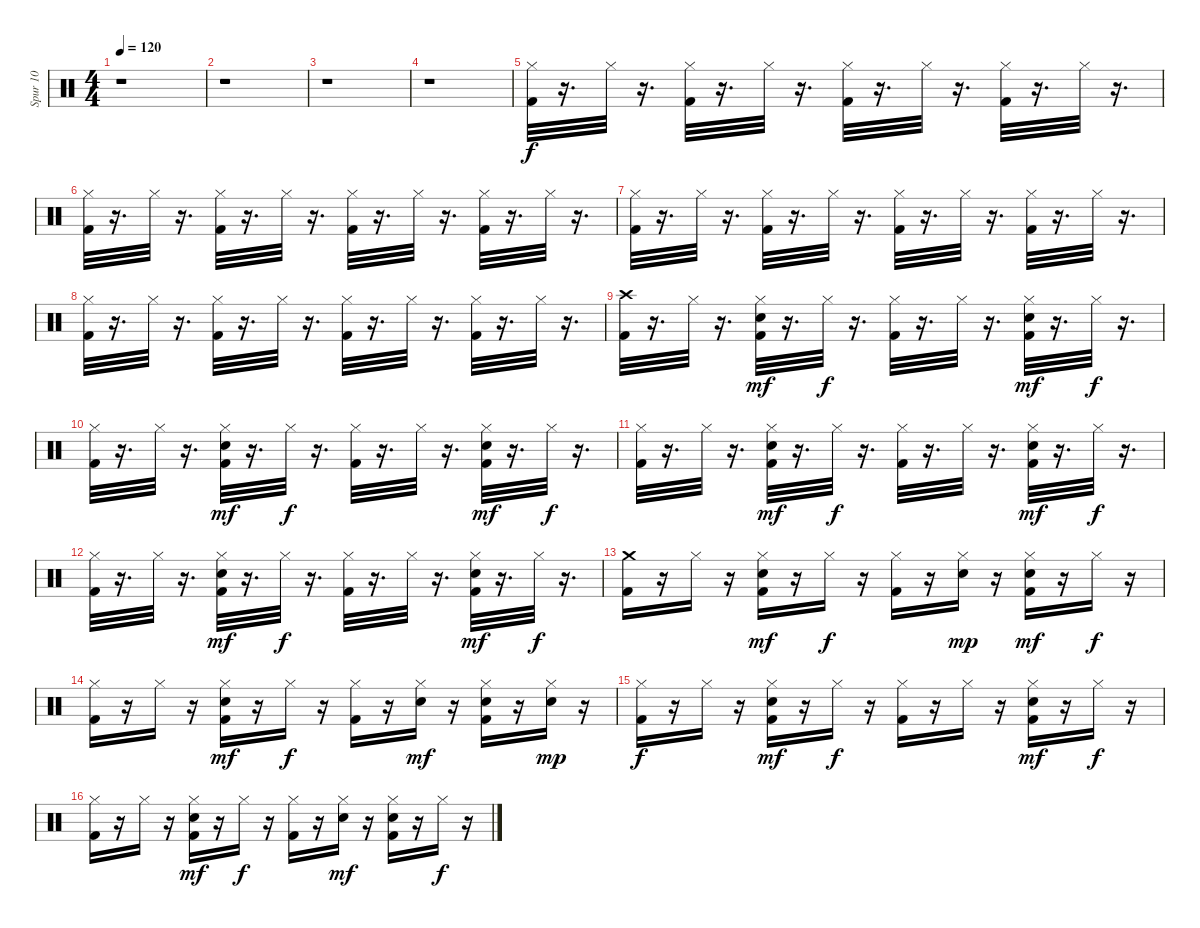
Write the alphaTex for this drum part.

\track ("Spur 10" "Spur 10") {instrument percussion}
\staff {score}
\articulation defaults
\ts (4 4)
\tempo 120
\clef neutral
\ks c
r.1{dy f} |
r.1 |
r.1 |
r.1 |
("Kick (hit) 2" "Hi-Hat (closed)").32 r.16{d} "Hi-Hat (closed)".32 r.16{d} ("Hi-Hat (closed)" "Kick (hit) 2").32 r.16{d} "Hi-Hat (closed)".32 r.16{d} ("Hi-Hat (closed)" "Kick (hit) 2").32 r.16{d} "Hi-Hat (closed)".32 r.16{d} ("Hi-Hat (closed)" "Kick (hit) 2").32 r.16{d} "Hi-Hat (closed)".32 r.16{d} |
("Kick (hit) 2" "Hi-Hat (closed)").32 r.16{d} "Hi-Hat (closed)".32 r.16{d} ("Hi-Hat (closed)" "Kick (hit) 2").32 r.16{d} "Hi-Hat (closed)".32 r.16{d} ("Hi-Hat (closed)" "Kick (hit) 2").32 r.16{d} "Hi-Hat (closed)".32 r.16{d} ("Hi-Hat (closed)" "Kick (hit) 2").32 r.16{d} "Hi-Hat (closed)".32 r.16{d} |
("Kick (hit) 2" "Hi-Hat (closed)").32 r.16{d} "Hi-Hat (closed)".32 r.16{d} ("Hi-Hat (closed)" "Kick (hit) 2").32 r.16{d} "Hi-Hat (closed)".32 r.16{d} ("Hi-Hat (closed)" "Kick (hit) 2").32 r.16{d} "Hi-Hat (closed)".32 r.16{d} ("Hi-Hat (closed)" "Kick (hit) 2").32 r.16{d} "Hi-Hat (closed)".32 r.16{d} |
("Kick (hit) 2" "Hi-Hat (closed)").32 r.16{d} "Hi-Hat (closed)".32 r.16{d} ("Hi-Hat (closed)" "Kick (hit) 2").32 r.16{d} "Hi-Hat (closed)".32 r.16{d} ("Hi-Hat (closed)" "Kick (hit) 2").32 r.16{d} "Hi-Hat (closed)".32 r.16{d} ("Hi-Hat (closed)" "Kick (hit) 2").32 r.16{d} "Hi-Hat (closed)".32 r.16{d} |
("Crash high (hit)" "Kick (hit) 2").32 r.16{d} "Hi-Hat (closed)".32 r.16{d} ("Hi-Hat (closed)" "Kick (hit) 2" "Snare (hit) 2").32{dy mf} r.16{d} "Hi-Hat (closed)".32{dy f} r.16{d} ("Hi-Hat (closed)" "Kick (hit) 2").32 r.16{d} "Hi-Hat (closed)".32 r.16{d} ("Hi-Hat (closed)" "Kick (hit) 2" "Snare (hit) 2").32{dy mf} r.16{d} "Hi-Hat (closed)".32{dy f} r.16{d} |
("Hi-Hat (closed)" "Kick (hit) 2").32 r.16{d} "Hi-Hat (closed)".32 r.16{d} ("Hi-Hat (closed)" "Kick (hit) 2" "Snare (hit) 2").32{dy mf} r.16{d} "Hi-Hat (closed)".32{dy f} r.16{d} ("Hi-Hat (closed)" "Kick (hit) 2").32 r.16{d} "Hi-Hat (closed)".32 r.16{d} ("Hi-Hat (closed)" "Kick (hit) 2" "Snare (hit) 2").32{dy mf} r.16{d} "Hi-Hat (closed)".32{dy f} r.16{d} |
("Hi-Hat (closed)" "Kick (hit) 2").32 r.16{d} "Hi-Hat (closed)".32 r.16{d} ("Hi-Hat (closed)" "Kick (hit) 2" "Snare (hit) 2").32{dy mf} r.16{d} "Hi-Hat (closed)".32{dy f} r.16{d} ("Hi-Hat (closed)" "Kick (hit) 2").32 r.16{d} "Hi-Hat (closed)".32 r.16{d} ("Hi-Hat (closed)" "Kick (hit) 2" "Snare (hit) 2").32{dy mf} r.16{d} "Hi-Hat (closed)".32{dy f} r.16{d} |
("Hi-Hat (closed)" "Kick (hit) 2").32 r.16{d} "Hi-Hat (closed)".32 r.16{d} ("Hi-Hat (closed)" "Kick (hit) 2" "Snare (hit) 2").32{dy mf} r.16{d} "Hi-Hat (closed)".32{dy f} r.16{d} ("Hi-Hat (closed)" "Kick (hit) 2").32 r.16{d} "Hi-Hat (closed)".32 r.16{d} ("Hi-Hat (closed)" "Kick (hit) 2" "Snare (hit) 2").32{dy mf} r.16{d} "Hi-Hat (closed)".32{dy f} r.16{d} |
("Crash medium (hit)" "Kick (hit) 2").16 r.16 "Hi-Hat (closed)".16 r.16 ("Kick (hit) 2" "Hi-Hat (closed)" "Snare (hit) 2").16{dy mf} r.16 "Hi-Hat (closed)".16{dy f} r.16 ("Kick (hit) 2" "Hi-Hat (closed)").16 r.16 ("Hi-Hat (closed)" "Snare (hit) 2").16{dy mp} r.16 ("Kick (hit) 2" "Hi-Hat (closed)" "Snare (hit) 2").16{dy mf} r.16 "Hi-Hat (closed)".16{dy f} r.16 |
("Hi-Hat (closed)" "Kick (hit) 2").16 r.16 "Hi-Hat (closed)".16 r.16 ("Hi-Hat (closed)" "Kick (hit) 2" "Snare (hit) 2").16{dy mf} r.16 "Hi-Hat (closed)".16{dy f} r.16 ("Hi-Hat (closed)" "Kick (hit) 2").16 r.16 ("Hi-Hat (closed)" "Snare (hit) 2").16{dy mf} r.16 ("Hi-Hat (closed)" "Kick (hit) 2" "Snare (hit) 2").16 r.16 ("Hi-Hat (closed)" "Snare (hit) 2").16{dy mp} r.16 |
("Hi-Hat (closed)" "Kick (hit) 2").16{dy f} r.16 "Hi-Hat (closed)".16 r.16 ("Hi-Hat (closed)" "Kick (hit) 2" "Snare (hit) 2").16{dy mf} r.16 "Hi-Hat (closed)".16{dy f} r.16 ("Kick (hit) 2" "Hi-Hat (closed)").16 r.16 "Hi-Hat (closed)".16 r.16 ("Hi-Hat (closed)" "Kick (hit) 2" "Snare (hit) 2").16{dy mf} r.16 "Hi-Hat (closed)".16{dy f} r.16 |
("Hi-Hat (closed)" "Kick (hit) 2").16 r.16 "Hi-Hat (closed)".16 r.16 ("Hi-Hat (closed)" "Kick (hit) 2" "Snare (hit) 2").16{dy mf} r.16 "Hi-Hat (closed)".16{dy f} r.16 ("Kick (hit) 2" "Hi-Hat (closed)").16 r.16 ("Hi-Hat (closed)" "Snare (hit) 2").16{dy mf} r.16 ("Hi-Hat (closed)" "Kick (hit) 2" "Snare (hit) 2").16 r.16 "Hi-Hat (closed)".16{dy f} r.16
